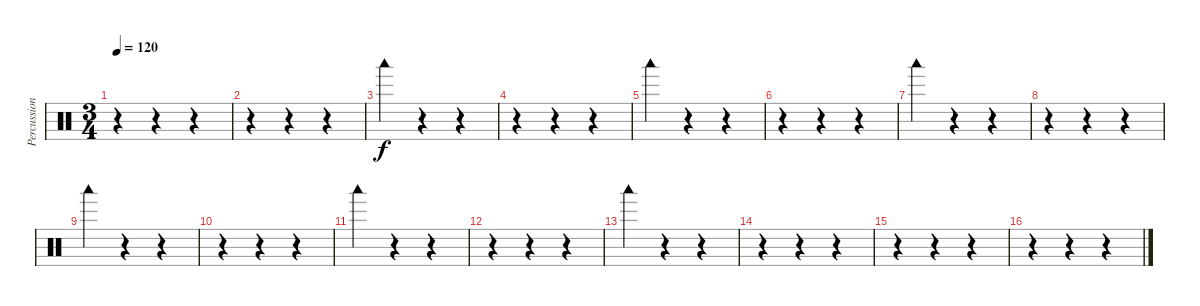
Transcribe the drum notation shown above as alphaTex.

\track ("Percussions" "Percussion") {instrument percussion}
\staff {score}
\articulation defaults
\ts (3 4)
\tempo 120
\clef neutral
\ks c
r.4{dy f} r.4 r.4 |
r.4 r.4 r.4 |
"Woodblock low (hit)".4 r.4 r.4 |
r.4 r.4 r.4 |
"Woodblock low (hit)".4 r.4 r.4 |
r.4 r.4 r.4 |
"Woodblock low (hit)".4 r.4 r.4 |
r.4 r.4 r.4 |
"Woodblock low (hit)".4 r.4 r.4 |
r.4 r.4 r.4 |
"Woodblock low (hit)".4 r.4 r.4 |
r.4 r.4 r.4 |
"Woodblock low (hit)".4 r.4 r.4 |
r.4 r.4 r.4 |
r.4 r.4 r.4 |
r.4 r.4 r.4
